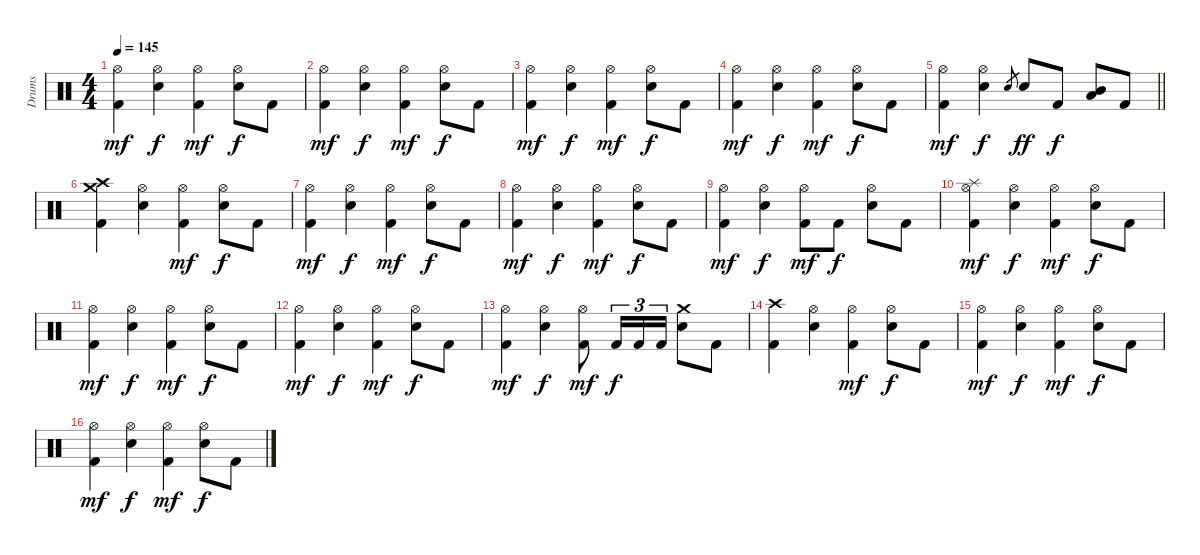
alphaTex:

\track ("Drums" "Drums") {instrument percussion}
\staff {score}
\articulation defaults
\ts (4 4)
\tempo 145
\clef neutral
\ks c
("Hi-Hat (open)" "Kick (hit) 2").4{dy mf} ("Hi-Hat (open)" "Electric Snare (hit)").4{dy f} ("Hi-Hat (open)" "Kick (hit) 2").4{dy mf} ("Hi-Hat (open)" "Electric Snare (hit)").8{dy f} "Kick (hit) 2".8 |
("Hi-Hat (open)" "Kick (hit) 2").4{dy mf} ("Hi-Hat (open)" "Electric Snare (hit)").4{dy f} ("Hi-Hat (open)" "Kick (hit) 2").4{dy mf} ("Hi-Hat (open)" "Electric Snare (hit)").8{dy f} "Kick (hit) 2".8 |
("Hi-Hat (open)" "Kick (hit) 2").4{dy mf} ("Hi-Hat (open)" "Electric Snare (hit)").4{dy f} ("Hi-Hat (open)" "Kick (hit) 2").4{dy mf} ("Hi-Hat (open)" "Electric Snare (hit)").8{dy f} "Kick (hit) 2".8 |
("Hi-Hat (open)" "Kick (hit) 2").4{dy mf} ("Hi-Hat (open)" "Electric Snare (hit)").4{dy f} ("Hi-Hat (open)" "Kick (hit) 2").4{dy mf} ("Hi-Hat (open)" "Electric Snare (hit)").8{dy f} "Kick (hit) 2".8 |
\barLineRight lightlight
("Hi-Hat (open)" "Kick (hit) 2").4{dy mf} ("Hi-Hat (open)" "Electric Snare (hit)").4{dy f} "Electric Snare (hit)".8{gr} "Electric Snare (hit)".8{dy ff} "Kick (hit) 2".8{dy f} ("Mid Tom (hit)" "Low Tom (hit)").8 "Kick (hit) 2".8 |
("Crash high (hit)" "Crash medium (hit)" "Kick (hit) 2").4 ("Hi-Hat (open)" "Electric Snare (hit)").4 ("Hi-Hat (open)" "Kick (hit) 2").4{dy mf} ("Hi-Hat (open)" "Electric Snare (hit)").8{dy f} "Kick (hit) 2".8 |
("Hi-Hat (open)" "Kick (hit) 2").4{dy mf} ("Hi-Hat (open)" "Electric Snare (hit)").4{dy f} ("Hi-Hat (open)" "Kick (hit) 2").4{dy mf} ("Hi-Hat (open)" "Electric Snare (hit)").8{dy f} "Kick (hit) 2".8 |
("Hi-Hat (open)" "Kick (hit) 2").4{dy mf} ("Hi-Hat (open)" "Electric Snare (hit)").4{dy f} ("Hi-Hat (open)" "Kick (hit) 2").4{dy mf} ("Hi-Hat (open)" "Electric Snare (hit)").8{dy f} "Kick (hit) 2".8 |
("Hi-Hat (open)" "Kick (hit) 2").4{dy mf} ("Hi-Hat (open)" "Electric Snare (hit)").4{dy f} ("Hi-Hat (open)" "Kick (hit) 2").8{dy mf} "Kick (hit) 2".8{dy f} ("Hi-Hat (open)" "Electric Snare (hit)").8 "Kick (hit) 2".8 |
("Splash (hit)" "Hi-Hat (open)" "Kick (hit) 2").4{dy mf} ("Hi-Hat (open)" "Electric Snare (hit)").4{dy f} ("Hi-Hat (open)" "Kick (hit) 2").4{dy mf} ("Hi-Hat (open)" "Electric Snare (hit)").8{dy f} "Kick (hit) 2".8 |
("Hi-Hat (open)" "Kick (hit) 2").4{dy mf} ("Hi-Hat (open)" "Electric Snare (hit)").4{dy f} ("Hi-Hat (open)" "Kick (hit) 2").4{dy mf} ("Hi-Hat (open)" "Electric Snare (hit)").8{dy f} "Kick (hit) 2".8 |
("Hi-Hat (open)" "Kick (hit) 2").4{dy mf} ("Hi-Hat (open)" "Electric Snare (hit)").4{dy f} ("Hi-Hat (open)" "Kick (hit) 2").4{dy mf} ("Hi-Hat (open)" "Electric Snare (hit)").8{dy f} "Kick (hit) 2".8 |
("Hi-Hat (open)" "Kick (hit) 2").4{dy mf} ("Hi-Hat (open)" "Electric Snare (hit)").4{dy f} ("Hi-Hat (open)" "Kick (hit) 2").8{dy mf} "Kick (hit) 2".16{tu (3 2) dy f} "Kick (hit) 2".16{tu (3 2)} "Kick (hit) 2".16{tu (3 2)} ("Crash medium (hit)" "Electric Snare (hit)").8 "Kick (hit) 2".8 |
("Crash high (hit)" "Kick (hit) 2").4 ("Hi-Hat (open)" "Electric Snare (hit)").4 ("Hi-Hat (open)" "Kick (hit) 2").4{dy mf} ("Hi-Hat (open)" "Electric Snare (hit)").8{dy f} "Kick (hit) 2".8 |
("Hi-Hat (open)" "Kick (hit) 2").4{dy mf} ("Hi-Hat (open)" "Electric Snare (hit)").4{dy f} ("Hi-Hat (open)" "Kick (hit) 2").4{dy mf} ("Hi-Hat (open)" "Electric Snare (hit)").8{dy f} "Kick (hit) 2".8 |
("Hi-Hat (open)" "Kick (hit) 2").4{dy mf} ("Hi-Hat (open)" "Electric Snare (hit)").4{dy f} ("Hi-Hat (open)" "Kick (hit) 2").4{dy mf} ("Hi-Hat (open)" "Electric Snare (hit)").8{dy f} "Kick (hit) 2".8
